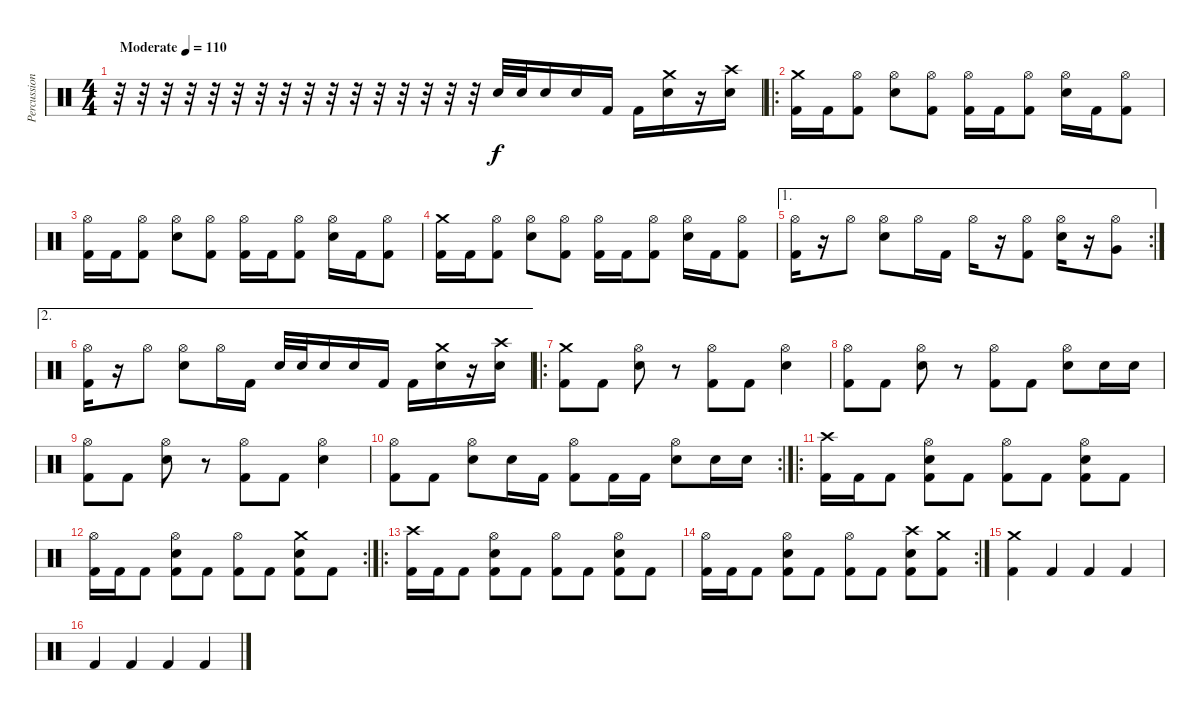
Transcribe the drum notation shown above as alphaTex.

\track ("Percussion" "Percussion") {instrument percussion}
\staff {score}
\articulation defaults
\ts (4 4)
\tempo (110 "Moderate")
\clef neutral
\ks c
r.32{dy f} r.32 r.32 r.32 r.32 r.32 r.32 r.32 r.32 r.32 r.32 r.32 r.32 r.32 r.32 r.32 "Electric Snare (hit)".32 "Electric Snare (hit)".32 "Electric Snare (hit)".16 "Electric Snare (hit)".16 "Kick (hit) 2".16 "Kick (hit) 2".16 ("Crash medium (hit)" "Electric Snare (hit)").16 r.16 ("Crash high (hit)" "Electric Snare (hit)").16 |
\ro
("Crash medium (hit)" "Kick (hit) 2").16 "Kick (hit) 2".16 ("Hi-Hat (open)" "Kick (hit) 2").8 ("Hi-Hat (open)" "Electric Snare (hit)").8 ("Hi-Hat (open)" "Kick (hit) 2").8 ("Hi-Hat (open)" "Kick (hit) 2").16 "Kick (hit) 2".16 ("Hi-Hat (open)" "Kick (hit) 2").8 ("Hi-Hat (open)" "Electric Snare (hit)").16 "Kick (hit) 2".16 ("Hi-Hat (open)" "Kick (hit) 2").8 |
("Hi-Hat (open)" "Kick (hit) 2").16 "Kick (hit) 2".16 ("Hi-Hat (open)" "Kick (hit) 2").8 ("Hi-Hat (open)" "Electric Snare (hit)").8 ("Hi-Hat (open)" "Kick (hit) 2").8 ("Hi-Hat (open)" "Kick (hit) 2").16 "Kick (hit) 2".16 ("Hi-Hat (open)" "Kick (hit) 2").8 ("Hi-Hat (open)" "Electric Snare (hit)").16 "Kick (hit) 2".16 ("Hi-Hat (open)" "Kick (hit) 2").8 |
("Crash medium (hit)" "Kick (hit) 2").16 "Kick (hit) 2".16 ("Hi-Hat (open)" "Kick (hit) 2").8 ("Hi-Hat (open)" "Electric Snare (hit)").8 ("Hi-Hat (open)" "Kick (hit) 2").8 ("Hi-Hat (open)" "Kick (hit) 2").16 "Kick (hit) 2".16 ("Hi-Hat (open)" "Kick (hit) 2").8 ("Hi-Hat (open)" "Electric Snare (hit)").16 "Kick (hit) 2".16 ("Hi-Hat (open)" "Kick (hit) 2").8 |
\ae 1
\rc 2
("Hi-Hat (open)" "Kick (hit) 2").16 r.16 "Hi-Hat (open)".8 ("Hi-Hat (open)" "Electric Snare (hit)").8 "Hi-Hat (open)".16 "Kick (hit) 2".16 "Hi-Hat (open)".16 r.16 ("Hi-Hat (open)" "Kick (hit) 2").8 ("Hi-Hat (open)" "Electric Snare (hit)").16 r.16 ("Hi-Hat (open)" "Very Low Tom (hit)").8 |
\ae 2
("Hi-Hat (open)" "Kick (hit) 2").16 r.16 "Hi-Hat (open)".8 ("Hi-Hat (open)" "Electric Snare (hit)").8 "Hi-Hat (open)".16 "Kick (hit) 2".16 "Electric Snare (hit)".32 "Electric Snare (hit)".32 "Electric Snare (hit)".16 "Electric Snare (hit)".16 "Kick (hit) 2".16 "Kick (hit) 2".16 ("Crash medium (hit)" "Electric Snare (hit)").16 r.16 ("Crash high (hit)" "Electric Snare (hit)").16 |
\ro
("Crash medium (hit)" "Kick (hit) 2").8 "Kick (hit) 2".8 ("Hi-Hat (open)" "Electric Snare (hit)").8 r.8 ("Hi-Hat (open)" "Kick (hit) 2").8 "Kick (hit) 2".8 ("Hi-Hat (open)" "Electric Snare (hit)").4 |
("Hi-Hat (open)" "Kick (hit) 2").8 "Kick (hit) 2".8 ("Hi-Hat (open)" "Electric Snare (hit)").8 r.8 ("Hi-Hat (open)" "Kick (hit) 2").8 "Kick (hit) 2".8 ("Hi-Hat (open)" "Electric Snare (hit)").8 "Electric Snare (hit)".16 "Electric Snare (hit)".16 |
("Hi-Hat (open)" "Kick (hit) 2").8 "Kick (hit) 2".8 ("Hi-Hat (open)" "Electric Snare (hit)").8 r.8 ("Hi-Hat (open)" "Kick (hit) 2").8 "Kick (hit) 2".8 ("Hi-Hat (open)" "Electric Snare (hit)").4 |
\rc 2
("Hi-Hat (open)" "Kick (hit) 2").8 "Kick (hit) 2".8 ("Hi-Hat (open)" "Electric Snare (hit)").8 "Electric Snare (hit)".16 "Kick (hit) 2".16 ("Hi-Hat (open)" "Kick (hit) 2").8 "Kick (hit) 2".16 "Kick (hit) 2".16 ("Hi-Hat (open)" "Electric Snare (hit)").8 "Electric Snare (hit)".16 "Electric Snare (hit)".16 |
\ro
("Crash high (hit)" "Kick (hit) 2").16 "Kick (hit) 2".16 "Kick (hit) 2".8 ("Hi-Hat (open)" "Electric Snare (hit)" "Kick (hit) 2").8 "Kick (hit) 2".8 ("Hi-Hat (open)" "Kick (hit) 2").8 "Kick (hit) 2".8 ("Hi-Hat (open)" "Electric Snare (hit)" "Kick (hit) 2").8 "Kick (hit) 2".8 |
\rc 2
("Hi-Hat (open)" "Kick (hit) 2").16 "Kick (hit) 2".16 "Kick (hit) 2".8 ("Hi-Hat (open)" "Electric Snare (hit)" "Kick (hit) 2").8 "Kick (hit) 2".8 ("Hi-Hat (open)" "Kick (hit) 2").8 "Kick (hit) 2".8 ("Crash medium (hit)" "Electric Snare (hit)" "Kick (hit) 2").8 "Kick (hit) 2".8 |
\ro
("Crash high (hit)" "Kick (hit) 2").16 "Kick (hit) 2".16 "Kick (hit) 2".8 ("Hi-Hat (open)" "Electric Snare (hit)" "Kick (hit) 2").8 "Kick (hit) 2".8 ("Hi-Hat (open)" "Kick (hit) 2").8 "Kick (hit) 2".8 ("Hi-Hat (open)" "Electric Snare (hit)" "Kick (hit) 2").8 "Kick (hit) 2".8 |
\rc 2
("Hi-Hat (open)" "Kick (hit) 2").16 "Kick (hit) 2".16 "Kick (hit) 2".8 ("Hi-Hat (open)" "Electric Snare (hit)" "Kick (hit) 2").8 "Kick (hit) 2".8 ("Hi-Hat (open)" "Kick (hit) 2").8 "Kick (hit) 2".8 ("Crash high (hit)" "Electric Snare (hit)" "Kick (hit) 2").8 ("Crash medium (hit)" "Kick (hit) 2").8 |
("Crash medium (hit)" "Kick (hit) 2").4 "Kick (hit) 2".4 "Kick (hit) 2".4 "Kick (hit) 2".4 |
"Kick (hit) 2".4 "Kick (hit) 2".4 "Kick (hit) 2".4 "Kick (hit) 2".4
